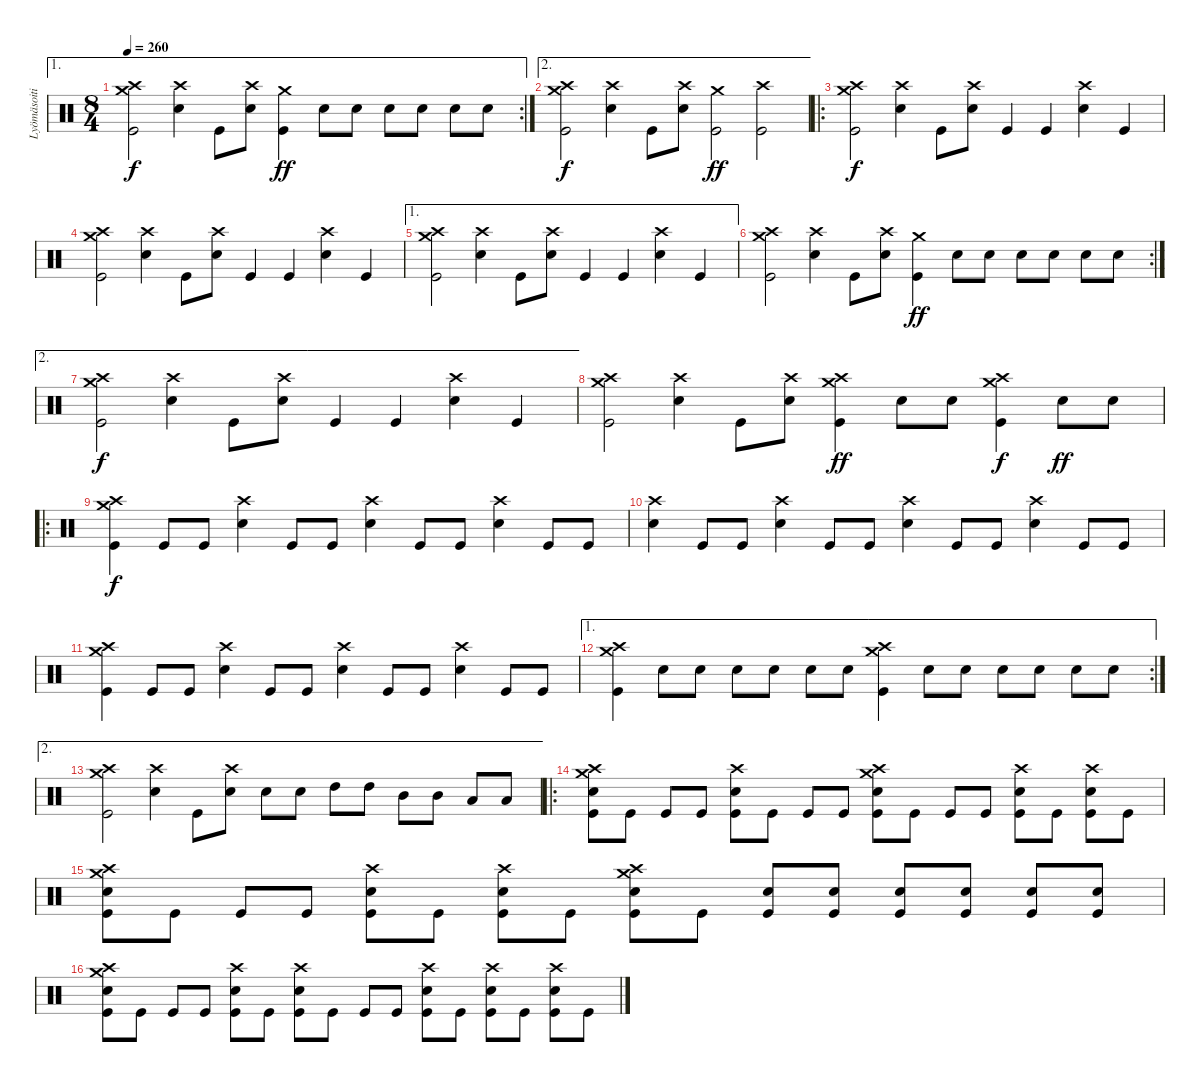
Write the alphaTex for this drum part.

\track ("Lyömäsoitin" "Lyömäsoiti") {instrument percussion}
\staff {score}
\articulation defaults
\ae 1
\rc 2
\ts (8 4)
\tempo 260
\clef neutral
\ks c
("Crash medium (hit)" "Crash high (hit)" "Kick (hit)").2{dy f} ("Crash high (hit)" "Snare (hit) 2").4 "Kick (hit)".8 ("Crash high (hit)" "Snare (hit) 2").8 ("Crash medium (hit)" "Kick (hit)").4{dy ff} "Snare (hit) 2".8 "Snare (hit) 2".8 "Snare (hit) 2".8 "Snare (hit) 2".8 "Snare (hit) 2".8 "Snare (hit) 2".8 |
\ae 2
("Crash medium (hit)" "Crash high (hit)" "Kick (hit)").2{dy f} ("Crash high (hit)" "Snare (hit) 2").4 "Kick (hit)".8 ("Crash high (hit)" "Snare (hit) 2").8 ("Crash medium (hit)" "Kick (hit)").2{dy ff} ("Crash high (hit)" "Kick (hit)").2 |
\ro
("Crash medium (hit)" "Crash high (hit)" "Kick (hit)").2{dy f} ("Crash high (hit)" "Snare (hit) 2").4 "Kick (hit)".8 ("Crash high (hit)" "Snare (hit) 2").8 "Kick (hit)".4 "Kick (hit)".4 ("Crash high (hit)" "Snare (hit) 2").4 "Kick (hit)".4 |
("Crash medium (hit)" "Crash high (hit)" "Kick (hit)").2 ("Crash high (hit)" "Snare (hit) 2").4 "Kick (hit)".8 ("Crash high (hit)" "Snare (hit) 2").8 "Kick (hit)".4 "Kick (hit)".4 ("Crash high (hit)" "Snare (hit) 2").4 "Kick (hit)".4 |
\ae 1
("Crash medium (hit)" "Crash high (hit)" "Kick (hit)").2 ("Crash high (hit)" "Snare (hit) 2").4 "Kick (hit)".8 ("Crash high (hit)" "Snare (hit) 2").8 "Kick (hit)".4 "Kick (hit)".4 ("Crash high (hit)" "Snare (hit) 2").4 "Kick (hit)".4 |
\rc 2
("Crash medium (hit)" "Crash high (hit)" "Kick (hit)").2 ("Crash high (hit)" "Snare (hit) 2").4 "Kick (hit)".8 ("Crash high (hit)" "Snare (hit) 2").8 ("Crash medium (hit)" "Kick (hit)").4{dy ff} "Snare (hit) 2".8 "Snare (hit) 2".8 "Snare (hit) 2".8 "Snare (hit) 2".8 "Snare (hit) 2".8 "Snare (hit) 2".8 |
\ae 2
("Crash medium (hit)" "Crash high (hit)" "Kick (hit)").2{dy f} ("Crash high (hit)" "Snare (hit) 2").4 "Kick (hit)".8 ("Crash high (hit)" "Snare (hit) 2").8 "Kick (hit)".4 "Kick (hit)".4 ("Crash high (hit)" "Snare (hit) 2").4 "Kick (hit)".4 |
("Crash medium (hit)" "Crash high (hit)" "Kick (hit)").2 ("Crash high (hit)" "Snare (hit) 2").4 "Kick (hit)".8 ("Crash high (hit)" "Snare (hit) 2").8 ("Crash medium (hit)" "Crash high (hit)" "Kick (hit)").4{dy ff} "Snare (hit) 2".8 "Snare (hit) 2".8 ("Crash medium (hit)" "Crash high (hit)" "Kick (hit)").4{dy f} "Snare (hit) 2".8{dy ff} "Snare (hit) 2".8 |
\ro
("Crash medium (hit)" "Crash high (hit)" "Kick (hit)").4{dy f} "Kick (hit)".8 "Kick (hit)".8 ("Crash high (hit)" "Snare (hit) 2").4 "Kick (hit)".8 "Kick (hit)".8 ("Crash high (hit)" "Snare (hit) 2").4 "Kick (hit)".8 "Kick (hit)".8 ("Crash high (hit)" "Snare (hit) 2").4 "Kick (hit)".8 "Kick (hit)".8 |
("Crash high (hit)" "Snare (hit) 2").4 "Kick (hit)".8 "Kick (hit)".8 ("Crash high (hit)" "Snare (hit) 2").4 "Kick (hit)".8 "Kick (hit)".8 ("Crash high (hit)" "Snare (hit) 2").4 "Kick (hit)".8 "Kick (hit)".8 ("Crash high (hit)" "Snare (hit) 2").4 "Kick (hit)".8 "Kick (hit)".8 |
("Crash medium (hit)" "Crash high (hit)" "Kick (hit)").4 "Kick (hit)".8 "Kick (hit)".8 ("Crash high (hit)" "Snare (hit) 2").4 "Kick (hit)".8 "Kick (hit)".8 ("Crash high (hit)" "Snare (hit) 2").4 "Kick (hit)".8 "Kick (hit)".8 ("Crash high (hit)" "Snare (hit) 2").4 "Kick (hit)".8 "Kick (hit)".8 |
\ae 1
\rc 2
("Crash medium (hit)" "Crash high (hit)" "Kick (hit)").4 "Snare (hit) 2".8 "Snare (hit) 2".8 "Snare (hit) 2".8 "Snare (hit) 2".8 "Snare (hit) 2".8 "Snare (hit) 2".8 ("Crash medium (hit)" "Crash high (hit)" "Kick (hit)").4 "Snare (hit) 2".8 "Snare (hit) 2".8 "Snare (hit) 2".8 "Snare (hit) 2".8 "Snare (hit) 2".8 "Snare (hit) 2".8 |
\ae 2
("Crash medium (hit)" "Crash high (hit)" "Kick (hit)").2 ("Crash high (hit)" "Snare (hit) 2").4 "Kick (hit)".8 ("Crash high (hit)" "Snare (hit) 2").8 "Snare (hit) 2".8 "Snare (hit) 2".8 "High Tom (hit)".8 "High Tom (hit)".8 "Mid Tom (hit)".8 "Mid Tom (hit)".8 "Low Tom (hit)".8 "Low Tom (hit)".8 |
\ro
("Crash medium (hit)" "Crash high (hit)" "Snare (hit) 2" "Kick (hit)").8 "Kick (hit)".8 "Kick (hit)".8 "Kick (hit)".8 ("Crash high (hit)" "Snare (hit) 2" "Kick (hit)").8 "Kick (hit)".8 "Kick (hit)".8 "Kick (hit)".8 ("Crash medium (hit)" "Crash high (hit)" "Snare (hit) 2" "Kick (hit)").8 "Kick (hit)".8 "Kick (hit)".8 "Kick (hit)".8 ("Crash high (hit)" "Snare (hit) 2" "Kick (hit)").8 "Kick (hit)".8 ("Crash high (hit)" "Snare (hit) 2" "Kick (hit)").8 "Kick (hit)".8 |
("Crash medium (hit)" "Crash high (hit)" "Snare (hit) 2" "Kick (hit)").8 "Kick (hit)".8 "Kick (hit)".8 "Kick (hit)".8 ("Crash high (hit)" "Snare (hit) 2" "Kick (hit)").8 "Kick (hit)".8 ("Crash high (hit)" "Snare (hit) 2" "Kick (hit)").8 "Kick (hit)".8 ("Crash medium (hit)" "Crash high (hit)" "Snare (hit) 2" "Kick (hit)").8 "Kick (hit)".8 ("Snare (hit) 2" "Kick (hit)").8 ("Snare (hit) 2" "Kick (hit)").8 ("Snare (hit) 2" "Kick (hit)").8 ("Snare (hit) 2" "Kick (hit)").8 ("Snare (hit) 2" "Kick (hit)").8 ("Snare (hit) 2" "Kick (hit)").8 |
("Crash medium (hit)" "Crash high (hit)" "Snare (hit) 2" "Kick (hit)").8 "Kick (hit)".8 "Kick (hit)".8 "Kick (hit)".8 ("Crash high (hit)" "Snare (hit) 2" "Kick (hit)").8 "Kick (hit)".8 ("Crash high (hit)" "Snare (hit) 2" "Kick (hit)").8 "Kick (hit)".8 "Kick (hit)".8 "Kick (hit)".8 ("Crash high (hit)" "Snare (hit) 2" "Kick (hit)").8 "Kick (hit)".8 ("Crash high (hit)" "Snare (hit) 2" "Kick (hit)").8 "Kick (hit)".8 ("Crash high (hit)" "Snare (hit) 2" "Kick (hit)").8 "Kick (hit)".8
